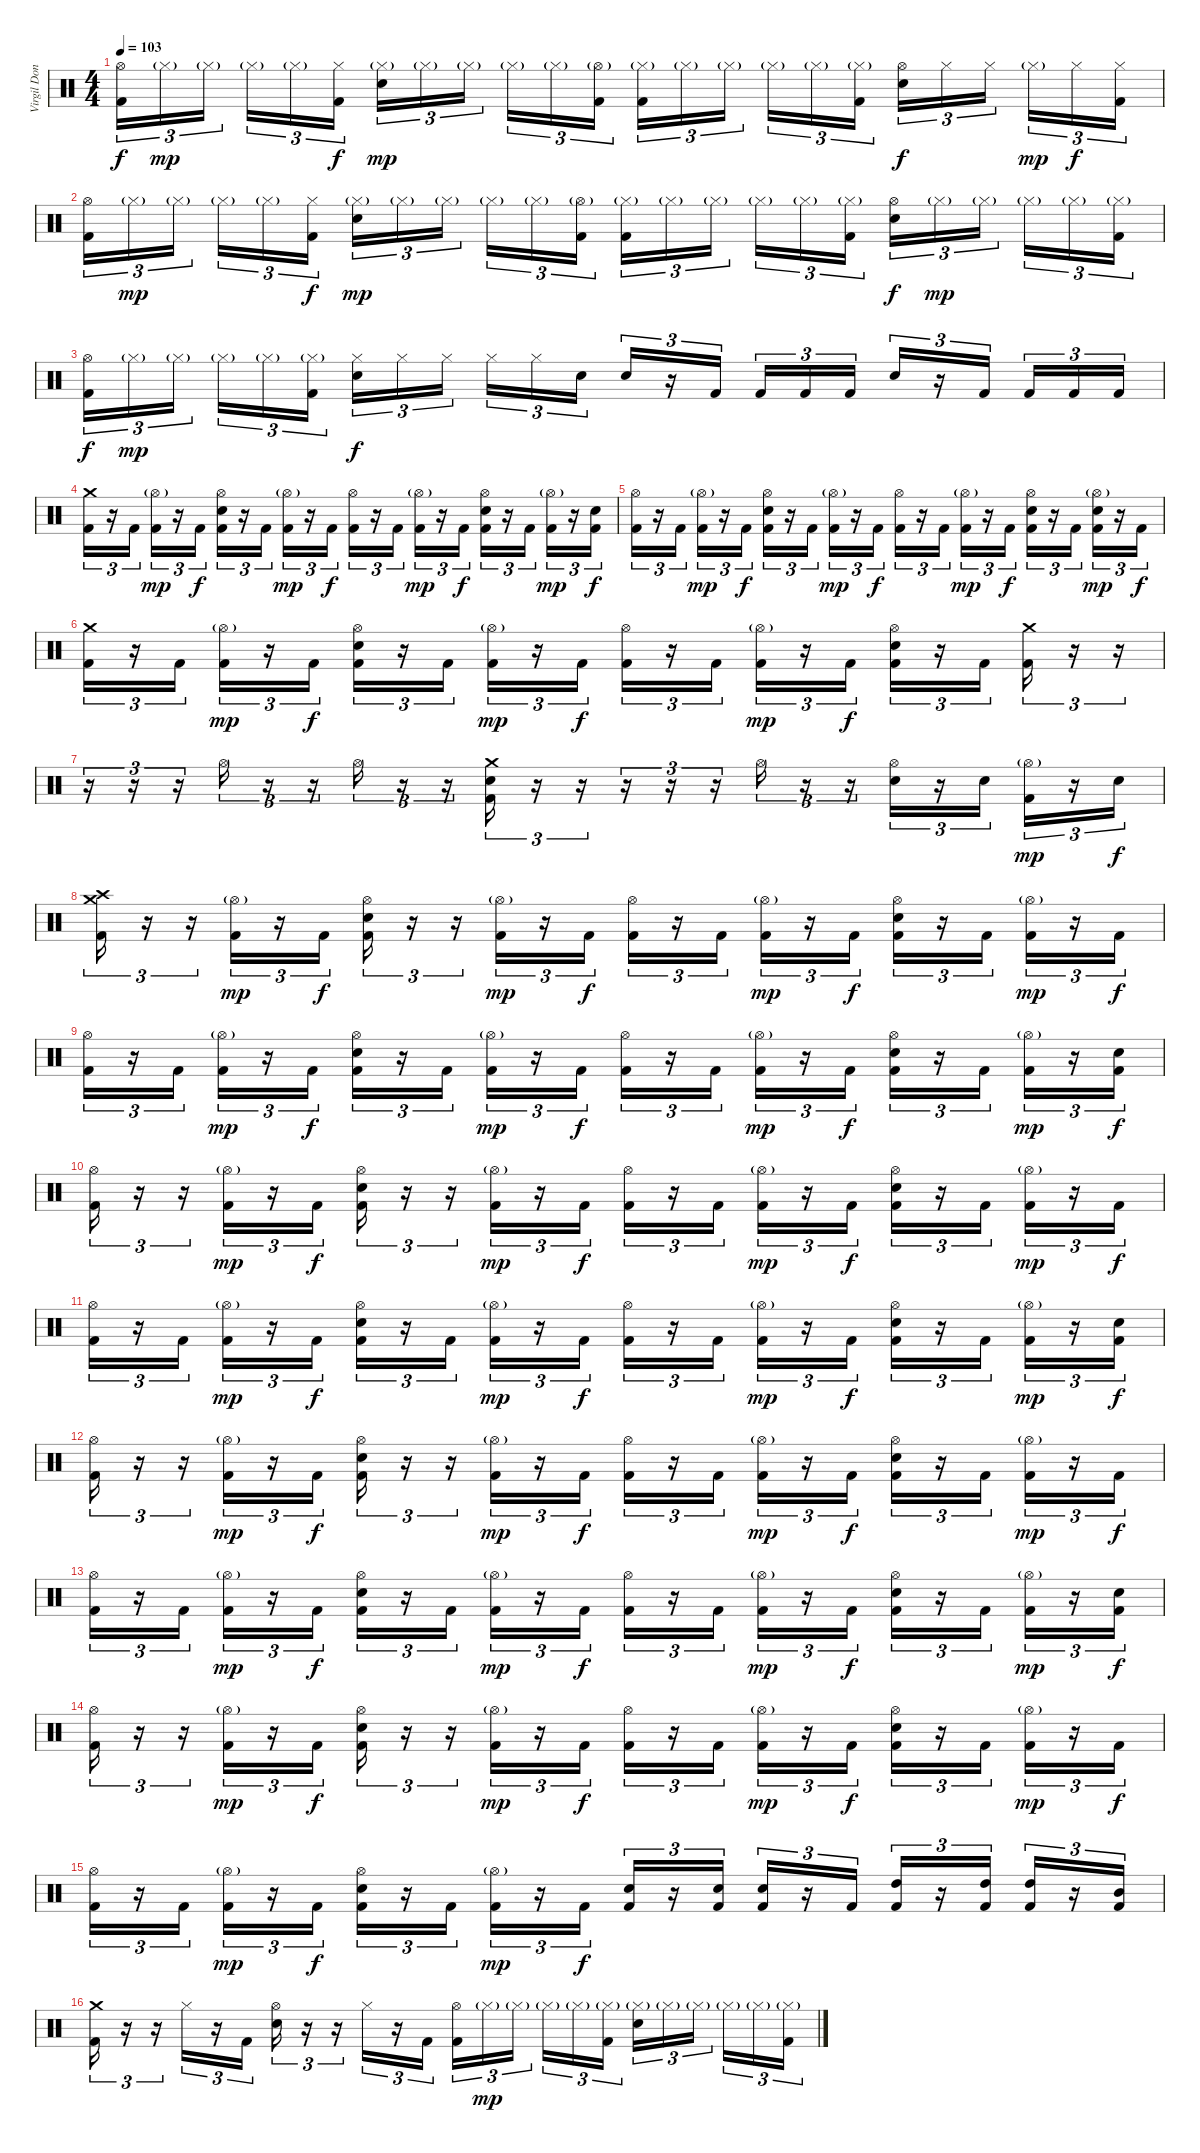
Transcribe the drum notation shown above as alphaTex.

\track ("Virgil Donati" "Virgil Don") {instrument percussion}
\staff {score}
\articulation defaults
\ts (4 4)
\tempo 103
\clef neutral
\ks c
("Hi-Hat (open)" "Kick (hit) 2").16{tu (3 2) dy f} "Hi-Hat (closed)"{g}.16{tu (3 2) dy mp} "Hi-Hat (closed)"{g}.16{tu (3 2)} "Hi-Hat (closed)"{g}.16{tu (3 2)} "Hi-Hat (closed)"{g}.16{tu (3 2)} ("Hi-Hat (closed)" "Kick (hit) 2").16{tu (3 2) dy f} ("Hi-Hat (closed)"{g} "Snare (hit) 2").16{tu (3 2) dy mp} "Hi-Hat (closed)"{g}.16{tu (3 2)} "Hi-Hat (closed)"{g}.16{tu (3 2)} "Hi-Hat (closed)"{g}.16{tu (3 2)} "Hi-Hat (closed)"{g}.16{tu (3 2)} ("Hi-Hat (open)"{g} "Kick (hit) 2").16{tu (3 2)} ("Hi-Hat (closed)"{g} "Kick (hit) 2").16{tu (3 2)} "Hi-Hat (closed)"{g}.16{tu (3 2)} "Hi-Hat (closed)"{g}.16{tu (3 2)} "Hi-Hat (closed)"{g}.16{tu (3 2)} "Hi-Hat (closed)"{g}.16{tu (3 2)} ("Hi-Hat (closed)"{g} "Kick (hit) 2").16{tu (3 2)} ("Hi-Hat (open)" "Snare (hit) 2").16{tu (3 2) dy f} "Hi-Hat (closed)".16{tu (3 2)} "Hi-Hat (closed)".16{tu (3 2)} "Hi-Hat (closed)"{g}.16{tu (3 2) dy mp} "Hi-Hat (closed)".16{tu (3 2) dy f} ("Hi-Hat (closed)" "Kick (hit) 2").16{tu (3 2)} |
("Hi-Hat (open)" "Kick (hit) 2").16{tu (3 2)} "Hi-Hat (closed)"{g}.16{tu (3 2) dy mp} "Hi-Hat (closed)"{g}.16{tu (3 2)} "Hi-Hat (closed)"{g}.16{tu (3 2)} "Hi-Hat (closed)"{g}.16{tu (3 2)} ("Hi-Hat (closed)" "Kick (hit) 2").16{tu (3 2) dy f} ("Hi-Hat (closed)"{g} "Snare (hit) 2").16{tu (3 2) dy mp} "Hi-Hat (closed)"{g}.16{tu (3 2)} "Hi-Hat (closed)"{g}.16{tu (3 2)} "Hi-Hat (closed)"{g}.16{tu (3 2)} "Hi-Hat (closed)"{g}.16{tu (3 2)} ("Hi-Hat (open)"{g} "Kick (hit) 2").16{tu (3 2)} ("Hi-Hat (closed)"{g} "Kick (hit) 2").16{tu (3 2)} "Hi-Hat (closed)"{g}.16{tu (3 2)} "Hi-Hat (closed)"{g}.16{tu (3 2)} "Hi-Hat (closed)"{g}.16{tu (3 2)} "Hi-Hat (closed)"{g}.16{tu (3 2)} ("Hi-Hat (closed)"{g} "Kick (hit) 2").16{tu (3 2)} ("Hi-Hat (open)" "Snare (hit) 2").16{tu (3 2) dy f} "Hi-Hat (closed)"{g}.16{tu (3 2) dy mp} "Hi-Hat (closed)"{g}.16{tu (3 2)} "Hi-Hat (closed)"{g}.16{tu (3 2)} "Hi-Hat (closed)"{g}.16{tu (3 2)} ("Hi-Hat (closed)"{g} "Kick (hit) 2").16{tu (3 2)} |
("Hi-Hat (open)" "Kick (hit) 2").16{tu (3 2) dy f} "Hi-Hat (closed)"{g}.16{tu (3 2) dy mp} "Hi-Hat (closed)"{g}.16{tu (3 2)} "Hi-Hat (closed)"{g}.16{tu (3 2)} "Hi-Hat (closed)"{g}.16{tu (3 2)} ("Hi-Hat (closed)"{g} "Kick (hit) 2").16{tu (3 2)} ("Hi-Hat (closed)" "Snare (hit) 2").16{tu (3 2) dy f} "Hi-Hat (closed)".16{tu (3 2)} "Hi-Hat (closed)".16{tu (3 2)} "Hi-Hat (closed)".16{tu (3 2)} "Hi-Hat (closed)".16{tu (3 2)} "Snare (hit) 2".16{tu (3 2)} "Snare (hit) 2".16{tu (3 2)} r.16{tu (3 2)} "Kick (hit) 2".16{tu (3 2)} "Kick (hit) 2".16{tu (3 2)} "Kick (hit) 2".16{tu (3 2)} "Kick (hit) 2".16{tu (3 2)} "Snare (hit) 2".16{tu (3 2)} r.16{tu (3 2)} "Kick (hit) 2".16{tu (3 2)} "Kick (hit) 2".16{tu (3 2)} "Kick (hit) 2".16{tu (3 2)} "Kick (hit) 2".16{tu (3 2)} |
("Crash medium (hit)" "Kick (hit) 2").16{tu (3 2)} r.16{tu (3 2)} "Kick (hit) 2".16{tu (3 2)} ("Hi-Hat (open)"{g} "Kick (hit) 2").16{tu (3 2) dy mp} r.16{tu (3 2)} "Kick (hit) 2".16{tu (3 2) dy f} ("Hi-Hat (open)" "Snare (hit) 2" "Kick (hit) 2").16{tu (3 2)} r.16{tu (3 2)} "Kick (hit) 2".16{tu (3 2)} ("Hi-Hat (open)"{g} "Kick (hit) 2").16{tu (3 2) dy mp} r.16{tu (3 2)} "Kick (hit) 2".16{tu (3 2) dy f} ("Hi-Hat (open)" "Kick (hit) 2").16{tu (3 2)} r.16{tu (3 2)} "Kick (hit) 2".16{tu (3 2)} ("Hi-Hat (open)"{g} "Kick (hit) 2").16{tu (3 2) dy mp} r.16{tu (3 2)} "Kick (hit) 2".16{tu (3 2) dy f} ("Hi-Hat (open)" "Snare (hit) 2" "Kick (hit) 2").16{tu (3 2)} r.16{tu (3 2)} "Kick (hit) 2".16{tu (3 2)} ("Hi-Hat (open)"{g} "Kick (hit) 2").16{tu (3 2) dy mp} r.16{tu (3 2)} ("Snare (hit) 2" "Kick (hit) 2").16{tu (3 2) dy f} |
("Hi-Hat (open)" "Kick (hit) 2").16{tu (3 2)} r.16{tu (3 2)} "Kick (hit) 2".16{tu (3 2)} ("Hi-Hat (open)"{g} "Kick (hit) 2").16{tu (3 2) dy mp} r.16{tu (3 2)} "Kick (hit) 2".16{tu (3 2) dy f} ("Hi-Hat (open)" "Snare (hit) 2" "Kick (hit) 2").16{tu (3 2)} r.16{tu (3 2)} "Kick (hit) 2".16{tu (3 2)} ("Hi-Hat (open)"{g} "Kick (hit) 2").16{tu (3 2) dy mp} r.16{tu (3 2)} "Kick (hit) 2".16{tu (3 2) dy f} ("Hi-Hat (open)" "Kick (hit) 2").16{tu (3 2)} r.16{tu (3 2)} "Kick (hit) 2".16{tu (3 2)} ("Hi-Hat (open)"{g} "Kick (hit) 2").16{tu (3 2) dy mp} r.16{tu (3 2)} "Kick (hit) 2".16{tu (3 2) dy f} ("Hi-Hat (open)" "Snare (hit) 2" "Kick (hit) 2").16{tu (3 2)} r.16{tu (3 2)} "Kick (hit) 2".16{tu (3 2)} ("Hi-Hat (open)"{g} "Snare (hit) 2" "Kick (hit) 2").16{tu (3 2) dy mp} r.16{tu (3 2)} "Kick (hit) 2".16{tu (3 2) dy f} |
("Crash medium (hit)" "Kick (hit) 2").16{tu (3 2)} r.16{tu (3 2)} "Kick (hit) 2".16{tu (3 2)} ("Hi-Hat (open)"{g} "Kick (hit) 2").16{tu (3 2) dy mp} r.16{tu (3 2)} "Kick (hit) 2".16{tu (3 2) dy f} ("Hi-Hat (open)" "Snare (hit) 2" "Kick (hit) 2").16{tu (3 2)} r.16{tu (3 2)} "Kick (hit) 2".16{tu (3 2)} ("Hi-Hat (open)"{g} "Kick (hit) 2").16{tu (3 2) dy mp} r.16{tu (3 2)} "Kick (hit) 2".16{tu (3 2) dy f} ("Hi-Hat (open)" "Kick (hit) 2").16{tu (3 2)} r.16{tu (3 2)} "Kick (hit) 2".16{tu (3 2)} ("Hi-Hat (open)"{g} "Kick (hit) 2").16{tu (3 2) dy mp} r.16{tu (3 2)} "Kick (hit) 2".16{tu (3 2) dy f} ("Hi-Hat (open)" "Snare (hit) 2" "Kick (hit) 2").16{tu (3 2)} r.16{tu (3 2)} "Kick (hit) 2".16{tu (3 2)} ("Crash medium (hit)" "Kick (hit) 2").16{tu (3 2)} r.16{tu (3 2)} r.16{tu (3 2)} |
r.16{tu (3 2)} r.16{tu (3 2)} r.16{tu (3 2)} "Hi-Hat (open)".16{tu (3 2)} r.16{tu (3 2)} r.16{tu (3 2)} "Hi-Hat (open)".16{tu (3 2)} r.16{tu (3 2)} r.16{tu (3 2)} ("Crash medium (hit)" "Snare (hit) 2" "Kick (hit) 2").16{tu (3 2)} r.16{tu (3 2)} r.16{tu (3 2)} r.16{tu (3 2)} r.16{tu (3 2)} r.16{tu (3 2)} "Hi-Hat (open)".16{tu (3 2)} r.16{tu (3 2)} r.16{tu (3 2)} ("Hi-Hat (open)" "Snare (hit) 2").16{tu (3 2)} r.16{tu (3 2)} "Snare (hit) 2".16{tu (3 2)} ("Hi-Hat (open)"{g} "Kick (hit) 2").16{tu (3 2) dy mp} r.16{tu (3 2)} "Snare (hit) 2".16{tu (3 2) dy f} |
("Crash medium (hit)" "Crash high (hit)" "Kick (hit) 2").16{tu (3 2)} r.16{tu (3 2)} r.16{tu (3 2)} ("Hi-Hat (open)"{g} "Kick (hit) 2").16{tu (3 2) dy mp} r.16{tu (3 2)} "Kick (hit) 2".16{tu (3 2) dy f} ("Hi-Hat (open)" "Snare (hit) 2" "Kick (hit) 2").16{tu (3 2)} r.16{tu (3 2)} r.16{tu (3 2)} ("Hi-Hat (open)"{g} "Kick (hit) 2").16{tu (3 2) dy mp} r.16{tu (3 2)} "Kick (hit) 2".16{tu (3 2) dy f} ("Hi-Hat (open)" "Kick (hit) 2").16{tu (3 2)} r.16{tu (3 2)} "Kick (hit) 2".16{tu (3 2)} ("Hi-Hat (open)"{g} "Kick (hit) 2").16{tu (3 2) dy mp} r.16{tu (3 2)} "Kick (hit) 2".16{tu (3 2) dy f} ("Hi-Hat (open)" "Snare (hit) 2" "Kick (hit) 2").16{tu (3 2)} r.16{tu (3 2)} "Kick (hit) 2".16{tu (3 2)} ("Hi-Hat (open)"{g} "Kick (hit) 2").16{tu (3 2) dy mp} r.16{tu (3 2)} "Kick (hit) 2".16{tu (3 2) dy f} |
("Hi-Hat (open)" "Kick (hit) 2").16{tu (3 2)} r.16{tu (3 2)} "Kick (hit) 2".16{tu (3 2)} ("Hi-Hat (open)"{g} "Kick (hit) 2").16{tu (3 2) dy mp} r.16{tu (3 2)} "Kick (hit) 2".16{tu (3 2) dy f} ("Hi-Hat (open)" "Snare (hit) 2" "Kick (hit) 2").16{tu (3 2)} r.16{tu (3 2)} "Kick (hit) 2".16{tu (3 2)} ("Hi-Hat (open)"{g} "Kick (hit) 2").16{tu (3 2) dy mp} r.16{tu (3 2)} "Kick (hit) 2".16{tu (3 2) dy f} ("Hi-Hat (open)" "Kick (hit) 2").16{tu (3 2)} r.16{tu (3 2)} "Kick (hit) 2".16{tu (3 2)} ("Hi-Hat (open)"{g} "Kick (hit) 2").16{tu (3 2) dy mp} r.16{tu (3 2)} "Kick (hit) 2".16{tu (3 2) dy f} ("Hi-Hat (open)" "Snare (hit) 2" "Kick (hit) 2").16{tu (3 2)} r.16{tu (3 2)} "Kick (hit) 2".16{tu (3 2)} ("Hi-Hat (open)"{g} "Kick (hit) 2").16{tu (3 2) dy mp} r.16{tu (3 2)} ("Snare (hit) 2" "Kick (hit) 2").16{tu (3 2) dy f} |
("Hi-Hat (open)" "Kick (hit) 2").16{tu (3 2)} r.16{tu (3 2)} r.16{tu (3 2)} ("Hi-Hat (open)"{g} "Kick (hit) 2").16{tu (3 2) dy mp} r.16{tu (3 2)} "Kick (hit) 2".16{tu (3 2) dy f} ("Hi-Hat (open)" "Snare (hit) 2" "Kick (hit) 2").16{tu (3 2)} r.16{tu (3 2)} r.16{tu (3 2)} ("Hi-Hat (open)"{g} "Kick (hit) 2").16{tu (3 2) dy mp} r.16{tu (3 2)} "Kick (hit) 2".16{tu (3 2) dy f} ("Hi-Hat (open)" "Kick (hit) 2").16{tu (3 2)} r.16{tu (3 2)} "Kick (hit) 2".16{tu (3 2)} ("Hi-Hat (open)"{g} "Kick (hit) 2").16{tu (3 2) dy mp} r.16{tu (3 2)} "Kick (hit) 2".16{tu (3 2) dy f} ("Hi-Hat (open)" "Snare (hit) 2" "Kick (hit) 2").16{tu (3 2)} r.16{tu (3 2)} "Kick (hit) 2".16{tu (3 2)} ("Hi-Hat (open)"{g} "Kick (hit) 2").16{tu (3 2) dy mp} r.16{tu (3 2)} "Kick (hit) 2".16{tu (3 2) dy f} |
("Hi-Hat (open)" "Kick (hit) 2").16{tu (3 2)} r.16{tu (3 2)} "Kick (hit) 2".16{tu (3 2)} ("Hi-Hat (open)"{g} "Kick (hit) 2").16{tu (3 2) dy mp} r.16{tu (3 2)} "Kick (hit) 2".16{tu (3 2) dy f} ("Hi-Hat (open)" "Snare (hit) 2" "Kick (hit) 2").16{tu (3 2)} r.16{tu (3 2)} "Kick (hit) 2".16{tu (3 2)} ("Hi-Hat (open)"{g} "Kick (hit) 2").16{tu (3 2) dy mp} r.16{tu (3 2)} "Kick (hit) 2".16{tu (3 2) dy f} ("Hi-Hat (open)" "Kick (hit) 2").16{tu (3 2)} r.16{tu (3 2)} "Kick (hit) 2".16{tu (3 2)} ("Hi-Hat (open)"{g} "Kick (hit) 2").16{tu (3 2) dy mp} r.16{tu (3 2)} "Kick (hit) 2".16{tu (3 2) dy f} ("Hi-Hat (open)" "Snare (hit) 2" "Kick (hit) 2").16{tu (3 2)} r.16{tu (3 2)} "Kick (hit) 2".16{tu (3 2)} ("Hi-Hat (open)"{g} "Kick (hit) 2").16{tu (3 2) dy mp} r.16{tu (3 2)} ("Snare (hit) 2" "Kick (hit) 2").16{tu (3 2) dy f} |
("Hi-Hat (open)" "Kick (hit) 2").16{tu (3 2)} r.16{tu (3 2)} r.16{tu (3 2)} ("Hi-Hat (open)"{g} "Kick (hit) 2").16{tu (3 2) dy mp} r.16{tu (3 2)} "Kick (hit) 2".16{tu (3 2) dy f} ("Hi-Hat (open)" "Snare (hit) 2" "Kick (hit) 2").16{tu (3 2)} r.16{tu (3 2)} r.16{tu (3 2)} ("Hi-Hat (open)"{g} "Kick (hit) 2").16{tu (3 2) dy mp} r.16{tu (3 2)} "Kick (hit) 2".16{tu (3 2) dy f} ("Hi-Hat (open)" "Kick (hit) 2").16{tu (3 2)} r.16{tu (3 2)} "Kick (hit) 2".16{tu (3 2)} ("Hi-Hat (open)"{g} "Kick (hit) 2").16{tu (3 2) dy mp} r.16{tu (3 2)} "Kick (hit) 2".16{tu (3 2) dy f} ("Hi-Hat (open)" "Snare (hit) 2" "Kick (hit) 2").16{tu (3 2)} r.16{tu (3 2)} "Kick (hit) 2".16{tu (3 2)} ("Hi-Hat (open)"{g} "Kick (hit) 2").16{tu (3 2) dy mp} r.16{tu (3 2)} "Kick (hit) 2".16{tu (3 2) dy f} |
("Hi-Hat (open)" "Kick (hit) 2").16{tu (3 2)} r.16{tu (3 2)} "Kick (hit) 2".16{tu (3 2)} ("Hi-Hat (open)"{g} "Kick (hit) 2").16{tu (3 2) dy mp} r.16{tu (3 2)} "Kick (hit) 2".16{tu (3 2) dy f} ("Hi-Hat (open)" "Snare (hit) 2" "Kick (hit) 2").16{tu (3 2)} r.16{tu (3 2)} "Kick (hit) 2".16{tu (3 2)} ("Hi-Hat (open)"{g} "Kick (hit) 2").16{tu (3 2) dy mp} r.16{tu (3 2)} "Kick (hit) 2".16{tu (3 2) dy f} ("Hi-Hat (open)" "Kick (hit) 2").16{tu (3 2)} r.16{tu (3 2)} "Kick (hit) 2".16{tu (3 2)} ("Hi-Hat (open)"{g} "Kick (hit) 2").16{tu (3 2) dy mp} r.16{tu (3 2)} "Kick (hit) 2".16{tu (3 2) dy f} ("Hi-Hat (open)" "Snare (hit) 2" "Kick (hit) 2").16{tu (3 2)} r.16{tu (3 2)} "Kick (hit) 2".16{tu (3 2)} ("Hi-Hat (open)"{g} "Kick (hit) 2").16{tu (3 2) dy mp} r.16{tu (3 2)} ("Snare (hit) 2" "Kick (hit) 2").16{tu (3 2) dy f} |
("Hi-Hat (open)" "Kick (hit) 2").16{tu (3 2)} r.16{tu (3 2)} r.16{tu (3 2)} ("Hi-Hat (open)"{g} "Kick (hit) 2").16{tu (3 2) dy mp} r.16{tu (3 2)} "Kick (hit) 2".16{tu (3 2) dy f} ("Hi-Hat (open)" "Snare (hit) 2" "Kick (hit) 2").16{tu (3 2)} r.16{tu (3 2)} r.16{tu (3 2)} ("Hi-Hat (open)"{g} "Kick (hit) 2").16{tu (3 2) dy mp} r.16{tu (3 2)} "Kick (hit) 2".16{tu (3 2) dy f} ("Hi-Hat (open)" "Kick (hit) 2").16{tu (3 2)} r.16{tu (3 2)} "Kick (hit) 2".16{tu (3 2)} ("Hi-Hat (open)"{g} "Kick (hit) 2").16{tu (3 2) dy mp} r.16{tu (3 2)} "Kick (hit) 2".16{tu (3 2) dy f} ("Hi-Hat (open)" "Snare (hit) 2" "Kick (hit) 2").16{tu (3 2)} r.16{tu (3 2)} "Kick (hit) 2".16{tu (3 2)} ("Hi-Hat (open)"{g} "Kick (hit) 2").16{tu (3 2) dy mp} r.16{tu (3 2)} "Kick (hit) 2".16{tu (3 2) dy f} |
("Hi-Hat (open)" "Kick (hit) 2").16{tu (3 2)} r.16{tu (3 2)} "Kick (hit) 2".16{tu (3 2)} ("Hi-Hat (open)"{g} "Kick (hit) 2").16{tu (3 2) dy mp} r.16{tu (3 2)} "Kick (hit) 2".16{tu (3 2) dy f} ("Hi-Hat (open)" "Snare (hit) 2" "Kick (hit) 2").16{tu (3 2)} r.16{tu (3 2)} "Kick (hit) 2".16{tu (3 2)} ("Hi-Hat (open)"{g} "Kick (hit) 2").16{tu (3 2) dy mp} r.16{tu (3 2)} "Kick (hit) 2".16{tu (3 2) dy f} ("Snare (hit) 2" "Kick (hit) 2").16{tu (3 2)} r.16{tu (3 2)} ("Snare (hit) 2" "Kick (hit) 2").16{tu (3 2)} ("Snare (hit) 2" "Kick (hit) 2").16{tu (3 2)} r.16{tu (3 2)} "Kick (hit) 2".16{tu (3 2)} ("High Tom (hit)" "Kick (hit) 2").16{tu (3 2)} r.16{tu (3 2)} ("High Tom (hit)" "Kick (hit) 2").16{tu (3 2)} ("High Tom (hit)" "Kick (hit) 2").16{tu (3 2)} r.16{tu (3 2)} ("Mid Tom (hit)" "Kick (hit) 2").16{tu (3 2)} |
("Crash medium (hit)" "Kick (hit) 2").16{tu (3 2)} r.16{tu (3 2)} r.16{tu (3 2)} "Hi-Hat (closed)".16{tu (3 2)} r.16{tu (3 2)} "Kick (hit) 2".16{tu (3 2)} ("Hi-Hat (open)" "Snare (hit) 2").16{tu (3 2)} r.16{tu (3 2)} r.16{tu (3 2)} "Hi-Hat (closed)".16{tu (3 2)} r.16{tu (3 2)} "Kick (hit) 2".16{tu (3 2)} ("Hi-Hat (open)" "Kick (hit) 2").16{tu (3 2)} "Hi-Hat (closed)"{g}.16{tu (3 2) dy mp} "Hi-Hat (closed)"{g}.16{tu (3 2)} "Hi-Hat (closed)"{g}.16{tu (3 2)} "Hi-Hat (closed)"{g}.16{tu (3 2)} ("Hi-Hat (closed)"{g} "Kick (hit) 2").16{tu (3 2)} ("Hi-Hat (closed)"{g} "Snare (hit) 2").16{tu (3 2)} "Hi-Hat (closed)"{g}.16{tu (3 2)} "Hi-Hat (closed)"{g}.16{tu (3 2)} "Hi-Hat (closed)"{g}.16{tu (3 2)} "Hi-Hat (closed)"{g}.16{tu (3 2)} ("Hi-Hat (closed)"{g} "Kick (hit) 2").16{tu (3 2)}
